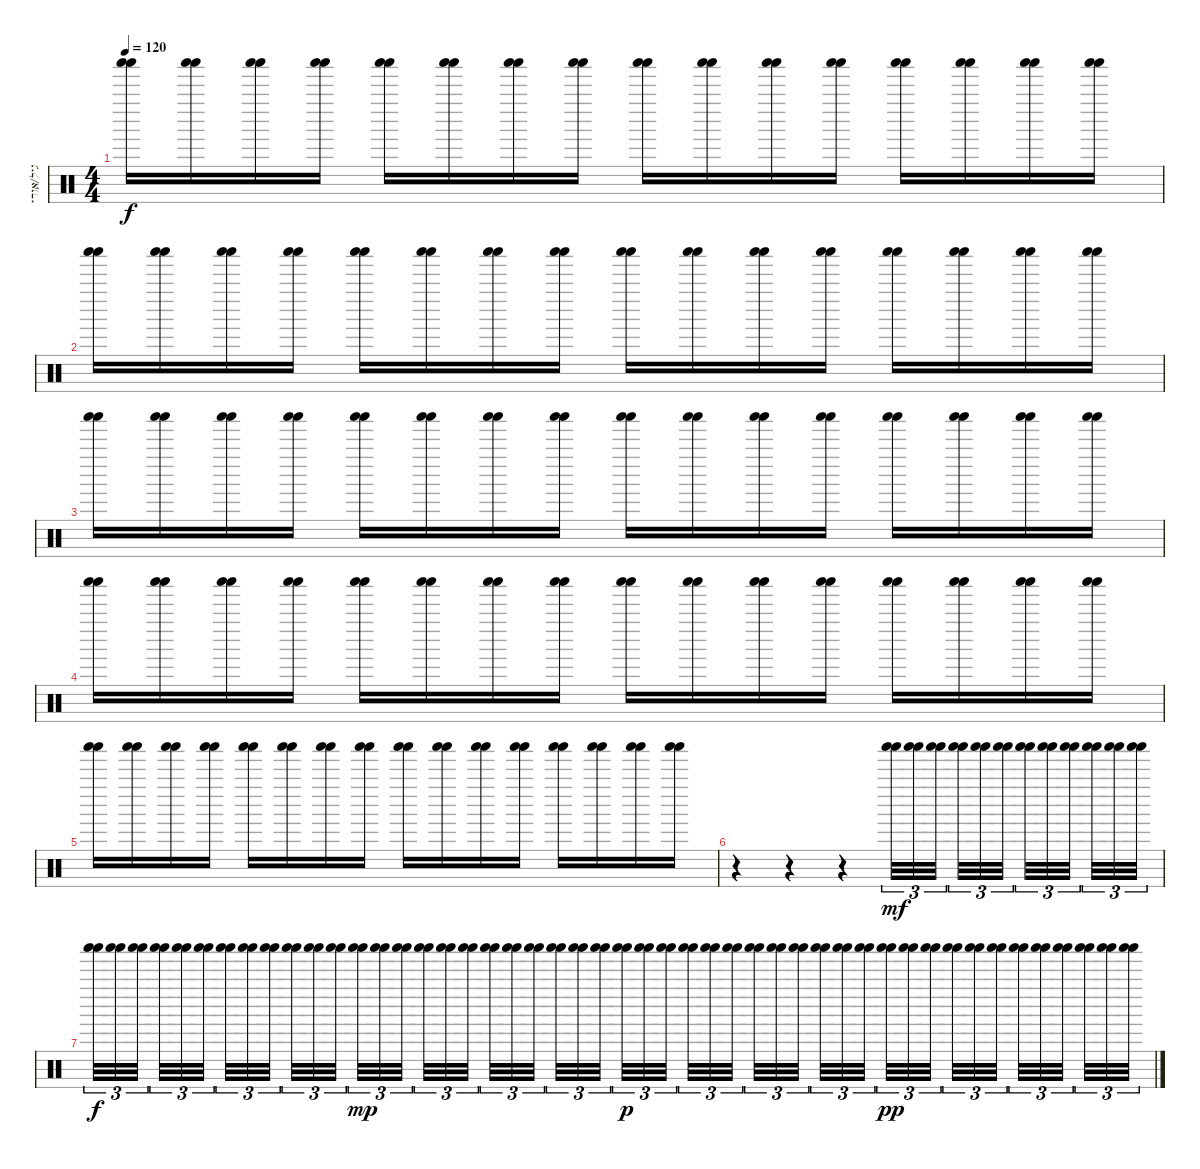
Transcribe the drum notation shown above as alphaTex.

\track ("גיל/אורי" "גיל/אורי") {instrument percussion}
\staff {score}
\articulation defaults
\ts (4 4)
\tempo 120
\clef neutral
\ks c
("Shaker (hit)" "Shaker (hit)").16{dy f} ("Shaker (hit)" "Shaker (hit)").16 ("Shaker (hit)" "Shaker (hit)").16 ("Shaker (hit)" "Shaker (hit)").16 ("Shaker (hit)" "Shaker (hit)").16 ("Shaker (hit)" "Shaker (hit)").16 ("Shaker (hit)" "Shaker (hit)").16 ("Shaker (hit)" "Shaker (hit)").16 ("Shaker (hit)" "Shaker (hit)").16 ("Shaker (hit)" "Shaker (hit)").16 ("Shaker (hit)" "Shaker (hit)").16 ("Shaker (hit)" "Shaker (hit)").16 ("Shaker (hit)" "Shaker (hit)").16 ("Shaker (hit)" "Shaker (hit)").16 ("Shaker (hit)" "Shaker (hit)").16 ("Shaker (hit)" "Shaker (hit)").16 |
("Shaker (hit)" "Shaker (hit)").16 ("Shaker (hit)" "Shaker (hit)").16 ("Shaker (hit)" "Shaker (hit)").16 ("Shaker (hit)" "Shaker (hit)").16 ("Shaker (hit)" "Shaker (hit)").16 ("Shaker (hit)" "Shaker (hit)").16 ("Shaker (hit)" "Shaker (hit)").16 ("Shaker (hit)" "Shaker (hit)").16 ("Shaker (hit)" "Shaker (hit)").16 ("Shaker (hit)" "Shaker (hit)").16 ("Shaker (hit)" "Shaker (hit)").16 ("Shaker (hit)" "Shaker (hit)").16 ("Shaker (hit)" "Shaker (hit)").16 ("Shaker (hit)" "Shaker (hit)").16 ("Shaker (hit)" "Shaker (hit)").16 ("Shaker (hit)" "Shaker (hit)").16 |
("Shaker (hit)" "Shaker (hit)").16 ("Shaker (hit)" "Shaker (hit)").16 ("Shaker (hit)" "Shaker (hit)").16 ("Shaker (hit)" "Shaker (hit)").16 ("Shaker (hit)" "Shaker (hit)").16 ("Shaker (hit)" "Shaker (hit)").16 ("Shaker (hit)" "Shaker (hit)").16 ("Shaker (hit)" "Shaker (hit)").16 ("Shaker (hit)" "Shaker (hit)").16 ("Shaker (hit)" "Shaker (hit)").16 ("Shaker (hit)" "Shaker (hit)").16 ("Shaker (hit)" "Shaker (hit)").16 ("Shaker (hit)" "Shaker (hit)").16 ("Shaker (hit)" "Shaker (hit)").16 ("Shaker (hit)" "Shaker (hit)").16 ("Shaker (hit)" "Shaker (hit)").16 |
("Shaker (hit)" "Shaker (hit)").16 ("Shaker (hit)" "Shaker (hit)").16 ("Shaker (hit)" "Shaker (hit)").16 ("Shaker (hit)" "Shaker (hit)").16 ("Shaker (hit)" "Shaker (hit)").16 ("Shaker (hit)" "Shaker (hit)").16 ("Shaker (hit)" "Shaker (hit)").16 ("Shaker (hit)" "Shaker (hit)").16 ("Shaker (hit)" "Shaker (hit)").16 ("Shaker (hit)" "Shaker (hit)").16 ("Shaker (hit)" "Shaker (hit)").16 ("Shaker (hit)" "Shaker (hit)").16 ("Shaker (hit)" "Shaker (hit)").16 ("Shaker (hit)" "Shaker (hit)").16 ("Shaker (hit)" "Shaker (hit)").16 ("Shaker (hit)" "Shaker (hit)").16 |
("Shaker (hit)" "Shaker (hit)").16 ("Shaker (hit)" "Shaker (hit)").16 ("Shaker (hit)" "Shaker (hit)").16 ("Shaker (hit)" "Shaker (hit)").16 ("Shaker (hit)" "Shaker (hit)").16 ("Shaker (hit)" "Shaker (hit)").16 ("Shaker (hit)" "Shaker (hit)").16 ("Shaker (hit)" "Shaker (hit)").16 ("Shaker (hit)" "Shaker (hit)").16 ("Shaker (hit)" "Shaker (hit)").16 ("Shaker (hit)" "Shaker (hit)").16 ("Shaker (hit)" "Shaker (hit)").16 ("Shaker (hit)" "Shaker (hit)").16 ("Shaker (hit)" "Shaker (hit)").16 ("Shaker (hit)" "Shaker (hit)").16 ("Shaker (hit)" "Shaker (hit)").16 |
r.4 r.4 r.4 ("Shaker (hit)" "Shaker (hit)").32{tu (3 2) dy mf} ("Shaker (hit)" "Shaker (hit)").32{tu (3 2)} ("Shaker (hit)" "Shaker (hit)").32{tu (3 2)} ("Shaker (hit)" "Shaker (hit)").32{tu (3 2)} ("Shaker (hit)" "Shaker (hit)").32{tu (3 2)} ("Shaker (hit)" "Shaker (hit)").32{tu (3 2)} ("Shaker (hit)" "Shaker (hit)").32{tu (3 2)} ("Shaker (hit)" "Shaker (hit)").32{tu (3 2)} ("Shaker (hit)" "Shaker (hit)").32{tu (3 2)} ("Shaker (hit)" "Shaker (hit)").32{tu (3 2)} ("Shaker (hit)" "Shaker (hit)").32{tu (3 2)} ("Shaker (hit)" "Shaker (hit)").32{tu (3 2)} |
("Shaker (hit)" "Shaker (hit)").32{tu (3 2) dy f} ("Shaker (hit)" "Shaker (hit)").32{tu (3 2)} ("Shaker (hit)" "Shaker (hit)").32{tu (3 2)} ("Shaker (hit)" "Shaker (hit)").32{tu (3 2)} ("Shaker (hit)" "Shaker (hit)").32{tu (3 2)} ("Shaker (hit)" "Shaker (hit)").32{tu (3 2)} ("Shaker (hit)" "Shaker (hit)").32{tu (3 2)} ("Shaker (hit)" "Shaker (hit)").32{tu (3 2)} ("Shaker (hit)" "Shaker (hit)").32{tu (3 2)} ("Shaker (hit)" "Shaker (hit)").32{tu (3 2)} ("Shaker (hit)" "Shaker (hit)").32{tu (3 2)} ("Shaker (hit)" "Shaker (hit)").32{tu (3 2)} ("Shaker (hit)" "Shaker (hit)").32{tu (3 2) dy mp} ("Shaker (hit)" "Shaker (hit)").32{tu (3 2)} ("Shaker (hit)" "Shaker (hit)").32{tu (3 2)} ("Shaker (hit)" "Shaker (hit)").32{tu (3 2)} ("Shaker (hit)" "Shaker (hit)").32{tu (3 2)} ("Shaker (hit)" "Shaker (hit)").32{tu (3 2)} ("Shaker (hit)" "Shaker (hit)").32{tu (3 2)} ("Shaker (hit)" "Shaker (hit)").32{tu (3 2)} ("Shaker (hit)" "Shaker (hit)").32{tu (3 2)} ("Shaker (hit)" "Shaker (hit)").32{tu (3 2)} ("Shaker (hit)" "Shaker (hit)").32{tu (3 2)} ("Shaker (hit)" "Shaker (hit)").32{tu (3 2)} ("Shaker (hit)" "Shaker (hit)").32{tu (3 2) dy p} ("Shaker (hit)" "Shaker (hit)").32{tu (3 2)} ("Shaker (hit)" "Shaker (hit)").32{tu (3 2)} ("Shaker (hit)" "Shaker (hit)").32{tu (3 2)} ("Shaker (hit)" "Shaker (hit)").32{tu (3 2)} ("Shaker (hit)" "Shaker (hit)").32{tu (3 2)} ("Shaker (hit)" "Shaker (hit)").32{tu (3 2)} ("Shaker (hit)" "Shaker (hit)").32{tu (3 2)} ("Shaker (hit)" "Shaker (hit)").32{tu (3 2)} ("Shaker (hit)" "Shaker (hit)").32{tu (3 2)} ("Shaker (hit)" "Shaker (hit)").32{tu (3 2)} ("Shaker (hit)" "Shaker (hit)").32{tu (3 2)} ("Shaker (hit)" "Shaker (hit)").32{tu (3 2) dy pp} ("Shaker (hit)" "Shaker (hit)").32{tu (3 2)} ("Shaker (hit)" "Shaker (hit)").32{tu (3 2)} ("Shaker (hit)" "Shaker (hit)").32{tu (3 2)} ("Shaker (hit)" "Shaker (hit)").32{tu (3 2)} ("Shaker (hit)" "Shaker (hit)").32{tu (3 2)} ("Shaker (hit)" "Shaker (hit)").32{tu (3 2)} ("Shaker (hit)" "Shaker (hit)").32{tu (3 2)} ("Shaker (hit)" "Shaker (hit)").32{tu (3 2)} ("Shaker (hit)" "Shaker (hit)").32{tu (3 2)} ("Shaker (hit)" "Shaker (hit)").32{tu (3 2)} ("Shaker (hit)" "Shaker (hit)").32{tu (3 2)}
